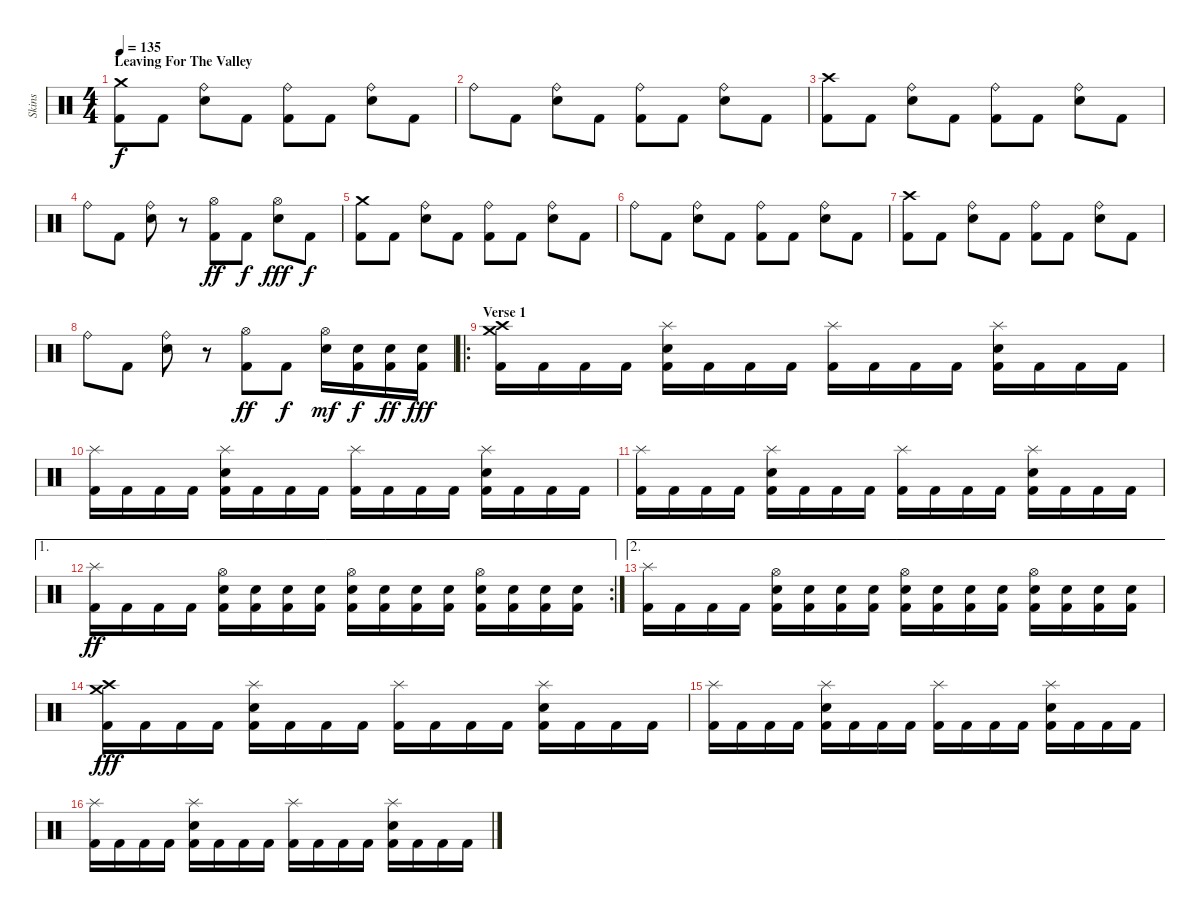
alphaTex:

\track ("Skins" "Skins") {instrument percussion}
\staff {score}
\articulation defaults
\ts (4 4)
\section ("" "Leaving For The Valley")
\tempo 135
\clef neutral
\ks c
("Crash medium (hit)" "Kick (hit) 2").8{dy f} "Kick (hit) 2".8 ("Ride (bell)" "Snare (hit) 2").8 "Kick (hit) 2".8 ("Ride (bell)" "Kick (hit) 2").8 "Kick (hit) 2".8 ("Ride (bell)" "Snare (hit) 2").8 "Kick (hit) 2".8 |
"Ride (bell)".8 "Kick (hit) 2".8 ("Ride (bell)" "Snare (hit) 2").8 "Kick (hit) 2".8 ("Ride (bell)" "Kick (hit) 2").8 "Kick (hit) 2".8 ("Ride (bell)" "Snare (hit) 2").8 "Kick (hit) 2".8 |
("Crash high (hit)" "Kick (hit) 2").8 "Kick (hit) 2".8 ("Ride (bell)" "Snare (hit) 2").8 "Kick (hit) 2".8 ("Ride (bell)" "Kick (hit) 2").8 "Kick (hit) 2".8 ("Ride (bell)" "Snare (hit) 2").8 "Kick (hit) 2".8 |
"Ride (bell)".8 "Kick (hit) 2".8 ("Ride (bell)" "Snare (hit) 2").8 r.8 ("Hi-Hat (open)" "Kick (hit) 2").8{dy ff} "Kick (hit) 2".8{dy f} ("Hi-Hat (open)" "Snare (hit) 2").8{dy fff} "Kick (hit) 2".8{dy f} |
("Crash medium (hit)" "Kick (hit) 2").8 "Kick (hit) 2".8 ("Ride (bell)" "Snare (hit) 2").8 "Kick (hit) 2".8 ("Ride (bell)" "Kick (hit) 2").8 "Kick (hit) 2".8 ("Ride (bell)" "Snare (hit) 2").8 "Kick (hit) 2".8 |
"Ride (bell)".8 "Kick (hit) 2".8 ("Ride (bell)" "Snare (hit) 2").8 "Kick (hit) 2".8 ("Ride (bell)" "Kick (hit) 2").8 "Kick (hit) 2".8 ("Ride (bell)" "Snare (hit) 2").8 "Kick (hit) 2".8 |
("Crash high (hit)" "Kick (hit) 2").8 "Kick (hit) 2".8 ("Ride (bell)" "Snare (hit) 2").8 "Kick (hit) 2".8 ("Ride (bell)" "Kick (hit) 2").8 "Kick (hit) 2".8 ("Ride (bell)" "Snare (hit) 2").8 "Kick (hit) 2".8 |
"Ride (bell)".8 "Kick (hit) 2".8 ("Ride (bell)" "Snare (hit) 2").8 r.8 ("Hi-Hat (open)" "Kick (hit) 2").8{dy ff} "Kick (hit) 2".8{dy f} ("Hi-Hat (open)" "Snare (hit) 2").16{dy mf} ("Snare (hit) 2" "Kick (hit) 2").16{dy f} ("Snare (hit) 2" "Kick (hit) 2").16{dy ff} ("Snare (hit) 2" "Kick (hit) 2").16{dy fff} |
\ro
\section ("" "Verse 1")
("Crash medium (hit)" "Crash high (hit)" "Kick (hit) 2").16 "Kick (hit) 2".16 "Kick (hit) 2".16 "Kick (hit) 2".16 ("Splash (hit)" "Snare (hit) 2" "Kick (hit) 2").16 "Kick (hit) 2".16 "Kick (hit) 2".16 "Kick (hit) 2".16 ("Splash (hit)" "Kick (hit) 2").16 "Kick (hit) 2".16 "Kick (hit) 2".16 "Kick (hit) 2".16 ("Splash (hit)" "Snare (hit) 2" "Kick (hit) 2").16 "Kick (hit) 2".16 "Kick (hit) 2".16 "Kick (hit) 2".16 |
("Splash (hit)" "Kick (hit) 2").16 "Kick (hit) 2".16 "Kick (hit) 2".16 "Kick (hit) 2".16 ("Splash (hit)" "Snare (hit) 2" "Kick (hit) 2").16 "Kick (hit) 2".16 "Kick (hit) 2".16 "Kick (hit) 2".16 ("Splash (hit)" "Kick (hit) 2").16 "Kick (hit) 2".16 "Kick (hit) 2".16 "Kick (hit) 2".16 ("Splash (hit)" "Snare (hit) 2" "Kick (hit) 2").16 "Kick (hit) 2".16 "Kick (hit) 2".16 "Kick (hit) 2".16 |
("Splash (hit)" "Kick (hit) 2").16 "Kick (hit) 2".16 "Kick (hit) 2".16 "Kick (hit) 2".16 ("Splash (hit)" "Snare (hit) 2" "Kick (hit) 2").16 "Kick (hit) 2".16 "Kick (hit) 2".16 "Kick (hit) 2".16 ("Splash (hit)" "Kick (hit) 2").16 "Kick (hit) 2".16 "Kick (hit) 2".16 "Kick (hit) 2".16 ("Splash (hit)" "Snare (hit) 2" "Kick (hit) 2").16 "Kick (hit) 2".16 "Kick (hit) 2".16 "Kick (hit) 2".16 |
\ae 1
\rc 2
("Splash (hit)" "Kick (hit) 2").16{dy ff} "Kick (hit) 2".16 "Kick (hit) 2".16 "Kick (hit) 2".16 ("Hi-Hat (open)" "Snare (hit) 2" "Kick (hit) 2").16 ("Snare (hit) 2" "Kick (hit) 2").16 ("Snare (hit) 2" "Kick (hit) 2").16 ("Snare (hit) 2" "Kick (hit) 2").16 ("Hi-Hat (open)" "Snare (hit) 2" "Kick (hit) 2").16 ("Snare (hit) 2" "Kick (hit) 2").16 ("Snare (hit) 2" "Kick (hit) 2").16 ("Snare (hit) 2" "Kick (hit) 2").16 ("Hi-Hat (open)" "Snare (hit) 2" "Kick (hit) 2").16 ("Snare (hit) 2" "Kick (hit) 2").16 ("Snare (hit) 2" "Kick (hit) 2").16 ("Snare (hit) 2" "Kick (hit) 2").16 |
\ae 2
("Splash (hit)" "Kick (hit) 2").16 "Kick (hit) 2".16 "Kick (hit) 2".16 "Kick (hit) 2".16 ("Hi-Hat (open)" "Snare (hit) 2" "Kick (hit) 2").16 ("Snare (hit) 2" "Kick (hit) 2").16 ("Snare (hit) 2" "Kick (hit) 2").16 ("Snare (hit) 2" "Kick (hit) 2").16 ("Hi-Hat (open)" "Snare (hit) 2" "Kick (hit) 2").16 ("Snare (hit) 2" "Kick (hit) 2").16 ("Snare (hit) 2" "Kick (hit) 2").16 ("Snare (hit) 2" "Kick (hit) 2").16 ("Hi-Hat (open)" "Snare (hit) 2" "Kick (hit) 2").16 ("Snare (hit) 2" "Kick (hit) 2").16 ("Snare (hit) 2" "Kick (hit) 2").16 ("Snare (hit) 2" "Kick (hit) 2").16 |
("Crash medium (hit)" "Crash high (hit)" "Kick (hit) 2").16{dy fff} "Kick (hit) 2".16 "Kick (hit) 2".16 "Kick (hit) 2".16 ("Splash (hit)" "Snare (hit) 2" "Kick (hit) 2").16 "Kick (hit) 2".16 "Kick (hit) 2".16 "Kick (hit) 2".16 ("Splash (hit)" "Kick (hit) 2").16 "Kick (hit) 2".16 "Kick (hit) 2".16 "Kick (hit) 2".16 ("Splash (hit)" "Snare (hit) 2" "Kick (hit) 2").16 "Kick (hit) 2".16 "Kick (hit) 2".16 "Kick (hit) 2".16 |
("Splash (hit)" "Kick (hit) 2").16 "Kick (hit) 2".16 "Kick (hit) 2".16 "Kick (hit) 2".16 ("Splash (hit)" "Snare (hit) 2" "Kick (hit) 2").16 "Kick (hit) 2".16 "Kick (hit) 2".16 "Kick (hit) 2".16 ("Splash (hit)" "Kick (hit) 2").16 "Kick (hit) 2".16 "Kick (hit) 2".16 "Kick (hit) 2".16 ("Splash (hit)" "Snare (hit) 2" "Kick (hit) 2").16 "Kick (hit) 2".16 "Kick (hit) 2".16 "Kick (hit) 2".16 |
("Splash (hit)" "Kick (hit) 2").16 "Kick (hit) 2".16 "Kick (hit) 2".16 "Kick (hit) 2".16 ("Splash (hit)" "Snare (hit) 2" "Kick (hit) 2").16 "Kick (hit) 2".16 "Kick (hit) 2".16 "Kick (hit) 2".16 ("Splash (hit)" "Kick (hit) 2").16 "Kick (hit) 2".16 "Kick (hit) 2".16 "Kick (hit) 2".16 ("Splash (hit)" "Snare (hit) 2" "Kick (hit) 2").16 "Kick (hit) 2".16 "Kick (hit) 2".16 "Kick (hit) 2".16
